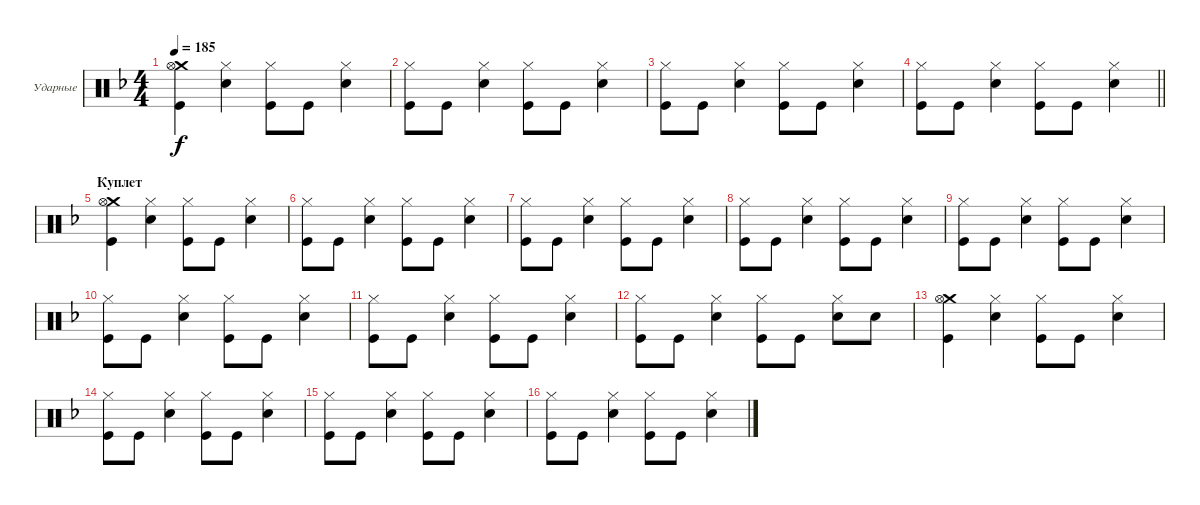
\bracketExtendMode groupsimilarinstruments
\firstSystemTrackNameOrientation horizontal
\otherSystemsTrackNameOrientation horizontal
\track ("Александр Львов" "Ударные") {instrument percussion}
\staff {score}
\articulation defaults
\ts (4 4)
\tempo 185
\clef neutral
\ks dminor
("Kick (hit)" "Crash medium (hit)" "Hi-Hat (open)").4{dy f} ("Snare (hit) 2" "Hi-Hat (closed)").4 ("Kick (hit)" "Hi-Hat (closed)").8 "Kick (hit)".8 ("Hi-Hat (closed)" "Snare (hit) 2").4 |
("Kick (hit)" "Hi-Hat (closed)").8 "Kick (hit)".8 ("Snare (hit) 2" "Hi-Hat (closed)").4 ("Kick (hit)" "Hi-Hat (closed)").8 "Kick (hit)".8 ("Hi-Hat (closed)" "Snare (hit) 2").4 |
("Kick (hit)" "Hi-Hat (closed)").8 "Kick (hit)".8 ("Snare (hit) 2" "Hi-Hat (closed)").4 ("Kick (hit)" "Hi-Hat (closed)").8 "Kick (hit)".8 ("Hi-Hat (closed)" "Snare (hit) 2").4 |
\barLineRight lightlight
("Kick (hit)" "Hi-Hat (closed)").8 "Kick (hit)".8 ("Snare (hit) 2" "Hi-Hat (closed)").4 ("Kick (hit)" "Hi-Hat (closed)").8 "Kick (hit)".8 ("Hi-Hat (closed)" "Snare (hit) 2").4 |
\section ("" "Куплет")
("Kick (hit)" "Crash medium (hit)" "Hi-Hat (open)").4 ("Snare (hit) 2" "Hi-Hat (closed)").4 ("Kick (hit)" "Hi-Hat (closed)").8 "Kick (hit)".8 ("Hi-Hat (closed)" "Snare (hit) 2").4 |
("Kick (hit)" "Hi-Hat (closed)").8 "Kick (hit)".8 ("Snare (hit) 2" "Hi-Hat (closed)").4 ("Kick (hit)" "Hi-Hat (closed)").8 "Kick (hit)".8 ("Hi-Hat (closed)" "Snare (hit) 2").4 |
("Kick (hit)" "Hi-Hat (closed)").8 "Kick (hit)".8 ("Snare (hit) 2" "Hi-Hat (closed)").4 ("Kick (hit)" "Hi-Hat (closed)").8 "Kick (hit)".8 ("Hi-Hat (closed)" "Snare (hit) 2").4 |
("Kick (hit)" "Hi-Hat (closed)").8 "Kick (hit)".8 ("Snare (hit) 2" "Hi-Hat (closed)").4 ("Kick (hit)" "Hi-Hat (closed)").8 "Kick (hit)".8 ("Hi-Hat (closed)" "Snare (hit) 2").4 |
("Kick (hit)" "Hi-Hat (closed)").8 "Kick (hit)".8 ("Snare (hit) 2" "Hi-Hat (closed)").4 ("Kick (hit)" "Hi-Hat (closed)").8 "Kick (hit)".8 ("Hi-Hat (closed)" "Snare (hit) 2").4 |
("Kick (hit)" "Hi-Hat (closed)").8 "Kick (hit)".8 ("Snare (hit) 2" "Hi-Hat (closed)").4 ("Kick (hit)" "Hi-Hat (closed)").8 "Kick (hit)".8 ("Hi-Hat (closed)" "Snare (hit) 2").4 |
("Kick (hit)" "Hi-Hat (closed)").8 "Kick (hit)".8 ("Snare (hit) 2" "Hi-Hat (closed)").4 ("Kick (hit)" "Hi-Hat (closed)").8 "Kick (hit)".8 ("Hi-Hat (closed)" "Snare (hit) 2").4 |
("Kick (hit)" "Hi-Hat (closed)").8 "Kick (hit)".8 ("Snare (hit) 2" "Hi-Hat (closed)").4 ("Kick (hit)" "Hi-Hat (closed)").8 "Kick (hit)".8 ("Hi-Hat (closed)" "Snare (hit) 2").8 "Snare (hit) 2".8 |
("Kick (hit)" "Crash medium (hit)" "Hi-Hat (open)").4 ("Snare (hit) 2" "Hi-Hat (closed)").4 ("Kick (hit)" "Hi-Hat (closed)").8 "Kick (hit)".8 ("Hi-Hat (closed)" "Snare (hit) 2").4 |
("Kick (hit)" "Hi-Hat (closed)").8 "Kick (hit)".8 ("Snare (hit) 2" "Hi-Hat (closed)").4 ("Kick (hit)" "Hi-Hat (closed)").8 "Kick (hit)".8 ("Hi-Hat (closed)" "Snare (hit) 2").4 |
("Kick (hit)" "Hi-Hat (closed)").8 "Kick (hit)".8 ("Snare (hit) 2" "Hi-Hat (closed)").4 ("Kick (hit)" "Hi-Hat (closed)").8 "Kick (hit)".8 ("Hi-Hat (closed)" "Snare (hit) 2").4 |
("Kick (hit)" "Hi-Hat (closed)").8 "Kick (hit)".8 ("Snare (hit) 2" "Hi-Hat (closed)").4 ("Kick (hit)" "Hi-Hat (closed)").8 "Kick (hit)".8 ("Hi-Hat (closed)" "Snare (hit) 2").4
